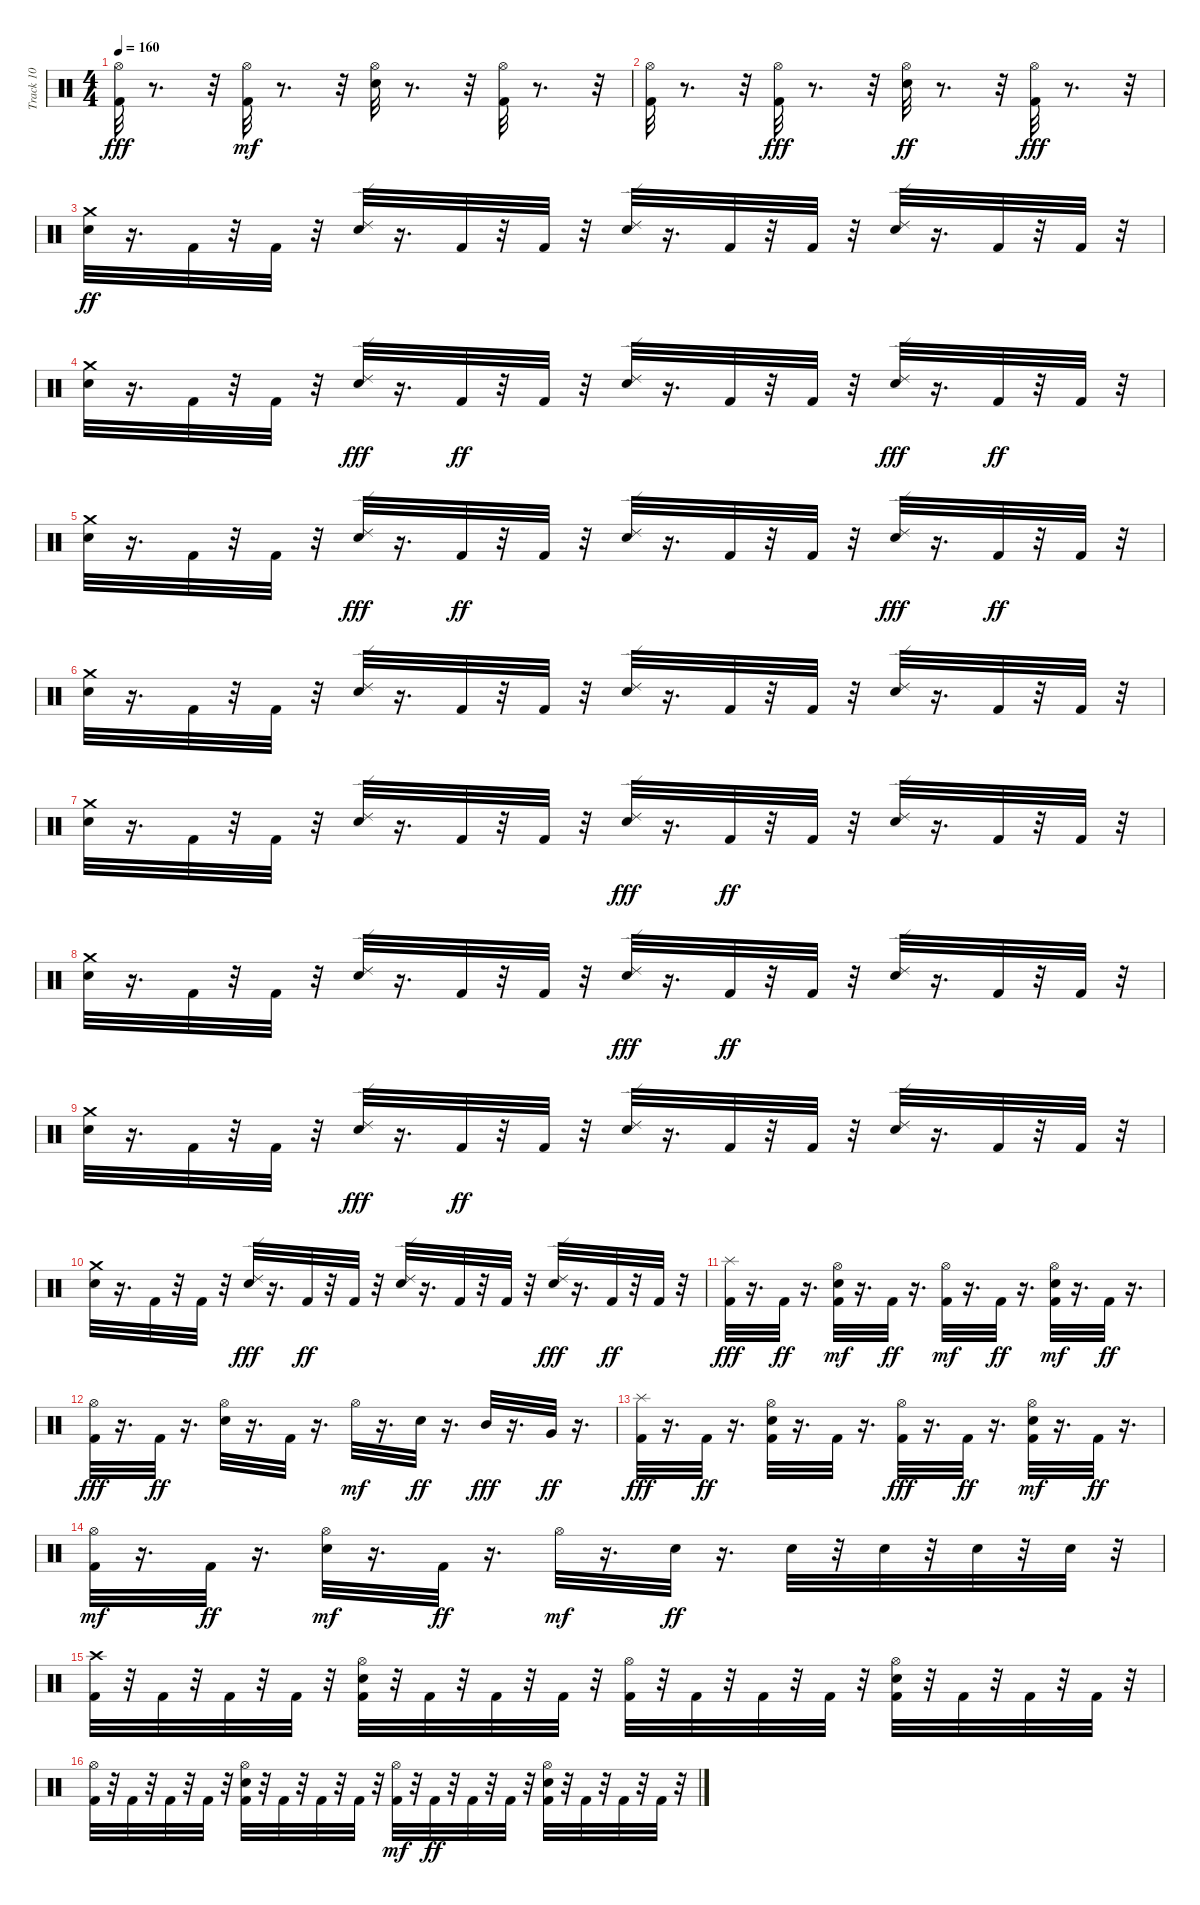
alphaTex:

\track ("Track 10" "Track 10") {instrument percussion}
\staff {score}
\articulation defaults
\ts (4 4)
\tempo 160
\clef neutral
\ks c
("Hi-Hat (open)" "Kick (hit) 2").32{dy fff} r.8{d} r.32 ("Kick (hit) 2" "Hi-Hat (open)").32{dy mf} r.8{d} r.32 ("Electric Snare (hit)" "Hi-Hat (open)").32 r.8{d} r.32 ("Kick (hit) 2" "Hi-Hat (open)").32 r.8{d} r.32 |
("Kick (hit) 2" "Hi-Hat (open)").32 r.8{d} r.32 ("Hi-Hat (open)" "Kick (hit) 2").32{dy fff} r.8{d} r.32 ("Hi-Hat (open)" "Electric Snare (hit)").32{dy ff} r.8{d} r.32 ("Hi-Hat (open)" "Kick (hit) 2").32{dy fff} r.8{d} r.32 |
("Crash medium (hit)" "Electric Snare (hit)").32{dy ff} r.16{d} "Kick (hit) 2".32 r.32 "Kick (hit) 2".32 r.32 ("Ride (edge) 2" "Electric Snare (hit)").32 r.16{d} "Kick (hit) 2".32 r.32 "Kick (hit) 2".32 r.32 ("Ride (edge) 2" "Electric Snare (hit)").32 r.16{d} "Kick (hit) 2".32 r.32 "Kick (hit) 2".32 r.32 ("Ride (edge) 2" "Electric Snare (hit)").32 r.16{d} "Kick (hit) 2".32 r.32 "Kick (hit) 2".32 r.32 |
("Crash medium (hit)" "Electric Snare (hit)").32 r.16{d} "Kick (hit) 2".32 r.32 "Kick (hit) 2".32 r.32 ("Electric Snare (hit)" "Ride (edge) 2").32{dy fff} r.16{d} "Kick (hit) 2".32{dy ff} r.32 "Kick (hit) 2".32 r.32 ("Ride (edge) 2" "Electric Snare (hit)").32 r.16{d} "Kick (hit) 2".32 r.32 "Kick (hit) 2".32 r.32 ("Electric Snare (hit)" "Ride (edge) 2").32{dy fff} r.16{d} "Kick (hit) 2".32{dy ff} r.32 "Kick (hit) 2".32 r.32 |
("Crash medium (hit)" "Electric Snare (hit)").32 r.16{d} "Kick (hit) 2".32 r.32 "Kick (hit) 2".32 r.32 ("Electric Snare (hit)" "Ride (edge) 2").32{dy fff} r.16{d} "Kick (hit) 2".32{dy ff} r.32 "Kick (hit) 2".32 r.32 ("Ride (edge) 2" "Electric Snare (hit)").32 r.16{d} "Kick (hit) 2".32 r.32 "Kick (hit) 2".32 r.32 ("Electric Snare (hit)" "Ride (edge) 2").32{dy fff} r.16{d} "Kick (hit) 2".32{dy ff} r.32 "Kick (hit) 2".32 r.32 |
("Electric Snare (hit)" "Crash medium (hit)").32 r.16{d} "Kick (hit) 2".32 r.32 "Kick (hit) 2".32 r.32 ("Ride (edge) 2" "Electric Snare (hit)").32 r.16{d} "Kick (hit) 2".32 r.32 "Kick (hit) 2".32 r.32 ("Ride (edge) 2" "Electric Snare (hit)").32 r.16{d} "Kick (hit) 2".32 r.32 "Kick (hit) 2".32 r.32 ("Ride (edge) 2" "Electric Snare (hit)").32 r.16{d} "Kick (hit) 2".32 r.32 "Kick (hit) 2".32 r.32 |
("Electric Snare (hit)" "Crash medium (hit)").32 r.16{d} "Kick (hit) 2".32 r.32 "Kick (hit) 2".32 r.32 ("Ride (edge) 2" "Electric Snare (hit)").32 r.16{d} "Kick (hit) 2".32 r.32 "Kick (hit) 2".32 r.32 ("Electric Snare (hit)" "Ride (edge) 2").32{dy fff} r.16{d} "Kick (hit) 2".32{dy ff} r.32 "Kick (hit) 2".32 r.32 ("Ride (edge) 2" "Electric Snare (hit)").32 r.16{d} "Kick (hit) 2".32 r.32 "Kick (hit) 2".32 r.32 |
("Electric Snare (hit)" "Crash medium (hit)").32 r.16{d} "Kick (hit) 2".32 r.32 "Kick (hit) 2".32 r.32 ("Ride (edge) 2" "Electric Snare (hit)").32 r.16{d} "Kick (hit) 2".32 r.32 "Kick (hit) 2".32 r.32 ("Electric Snare (hit)" "Ride (edge) 2").32{dy fff} r.16{d} "Kick (hit) 2".32{dy ff} r.32 "Kick (hit) 2".32 r.32 ("Ride (edge) 2" "Electric Snare (hit)").32 r.16{d} "Kick (hit) 2".32 r.32 "Kick (hit) 2".32 r.32 |
("Electric Snare (hit)" "Crash medium (hit)").32 r.16{d} "Kick (hit) 2".32 r.32 "Kick (hit) 2".32 r.32 ("Electric Snare (hit)" "Ride (edge) 2").32{dy fff} r.16{d} "Kick (hit) 2".32{dy ff} r.32 "Kick (hit) 2".32 r.32 ("Ride (edge) 2" "Electric Snare (hit)").32 r.16{d} "Kick (hit) 2".32 r.32 "Kick (hit) 2".32 r.32 ("Ride (edge) 2" "Electric Snare (hit)").32 r.16{d} "Kick (hit) 2".32 r.32 "Kick (hit) 2".32 r.32 |
("Electric Snare (hit)" "Crash medium (hit)").32 r.16{d} "Kick (hit) 2".32 r.32 "Kick (hit) 2".32 r.32 ("Electric Snare (hit)" "Ride (edge) 2").32{dy fff} r.16{d} "Kick (hit) 2".32{dy ff} r.32 "Kick (hit) 2".32 r.32 ("Ride (edge) 2" "Electric Snare (hit)").32 r.16{d} "Kick (hit) 2".32 r.32 "Kick (hit) 2".32 r.32 ("Electric Snare (hit)" "Ride (edge) 2").32{dy fff} r.16{d} "Kick (hit) 2".32{dy ff} r.32 "Kick (hit) 2".32 r.32 |
("Splash (hit)" "Kick (hit) 2").32{dy fff} r.16{d} "Kick (hit) 2".32{dy ff} r.16{d} ("Kick (hit) 2" "Electric Snare (hit)" "Hi-Hat (open)").32{dy mf} r.16{d} "Kick (hit) 2".32{dy ff} r.16{d} ("Kick (hit) 2" "Hi-Hat (open)").32{dy mf} r.16{d} "Kick (hit) 2".32{dy ff} r.16{d} ("Kick (hit) 2" "Electric Snare (hit)" "Hi-Hat (open)").32{dy mf} r.16{d} "Kick (hit) 2".32{dy ff} r.16{d} |
("Hi-Hat (open)" "Kick (hit) 2").32{dy fff} r.16{d} "Kick (hit) 2".32{dy ff} r.16{d} ("Hi-Hat (open)" "Electric Snare (hit)").32 r.16{d} "Kick (hit) 2".32 r.16{d} "Hi-Hat (open)".32{dy mf} r.16{d} "Electric Snare (hit)".32{dy ff} r.16{d} "Mid Tom (hit)".32{dy fff} r.16{d} "Very Low Tom (hit)".32{dy ff} r.16{d} |
("Splash (hit)" "Kick (hit) 2").32{dy fff} r.16{d} "Kick (hit) 2".32{dy ff} r.16{d} ("Kick (hit) 2" "Hi-Hat (open)" "Electric Snare (hit)").32 r.16{d} "Kick (hit) 2".32 r.16{d} ("Hi-Hat (open)" "Kick (hit) 2").32{dy fff} r.16{d} "Kick (hit) 2".32{dy ff} r.16{d} ("Kick (hit) 2" "Electric Snare (hit)" "Hi-Hat (open)").32{dy mf} r.16{d} "Kick (hit) 2".32{dy ff} r.16{d} |
("Kick (hit) 2" "Hi-Hat (open)").32{dy mf} r.16{d} "Kick (hit) 2".32{dy ff} r.16{d} ("Electric Snare (hit)" "Hi-Hat (open)").32{dy mf} r.16{d} "Kick (hit) 2".32{dy ff} r.16{d} "Hi-Hat (open)".32{dy mf} r.16{d} "Electric Snare (hit)".32{dy ff} r.16{d} "Electric Snare (hit)".32 r.32 "Electric Snare (hit)".32 r.32 "Electric Snare (hit)".32 r.32 "Electric Snare (hit)".32 r.32 |
("Kick (hit) 2" "Crash high (hit)").32 r.32 "Kick (hit) 2".32 r.32 "Kick (hit) 2".32 r.32 "Kick (hit) 2".32 r.32 ("Electric Snare (hit)" "Hi-Hat (open)" "Kick (hit) 2").32 r.32 "Kick (hit) 2".32 r.32 "Kick (hit) 2".32 r.32 "Kick (hit) 2".32 r.32 ("Hi-Hat (open)" "Kick (hit) 2").32 r.32 "Kick (hit) 2".32 r.32 "Kick (hit) 2".32 r.32 "Kick (hit) 2".32 r.32 ("Kick (hit) 2" "Hi-Hat (open)" "Electric Snare (hit)").32 r.32 "Kick (hit) 2".32 r.32 "Kick (hit) 2".32 r.32 "Kick (hit) 2".32 r.32 |
("Hi-Hat (open)" "Kick (hit) 2").32 r.32 "Kick (hit) 2".32 r.32 "Kick (hit) 2".32 r.32 "Kick (hit) 2".32 r.32 ("Hi-Hat (open)" "Electric Snare (hit)" "Kick (hit) 2").32 r.32 "Kick (hit) 2".32 r.32 "Kick (hit) 2".32 r.32 "Kick (hit) 2".32 r.32 ("Kick (hit) 2" "Hi-Hat (open)").32{dy mf} r.32 "Kick (hit) 2".32{dy ff} r.32 "Kick (hit) 2".32 r.32 "Kick (hit) 2".32 r.32 ("Electric Snare (hit)" "Hi-Hat (open)" "Kick (hit) 2").32 r.32 "Kick (hit) 2".32 r.32 "Kick (hit) 2".32 r.32 "Kick (hit) 2".32 r.32
